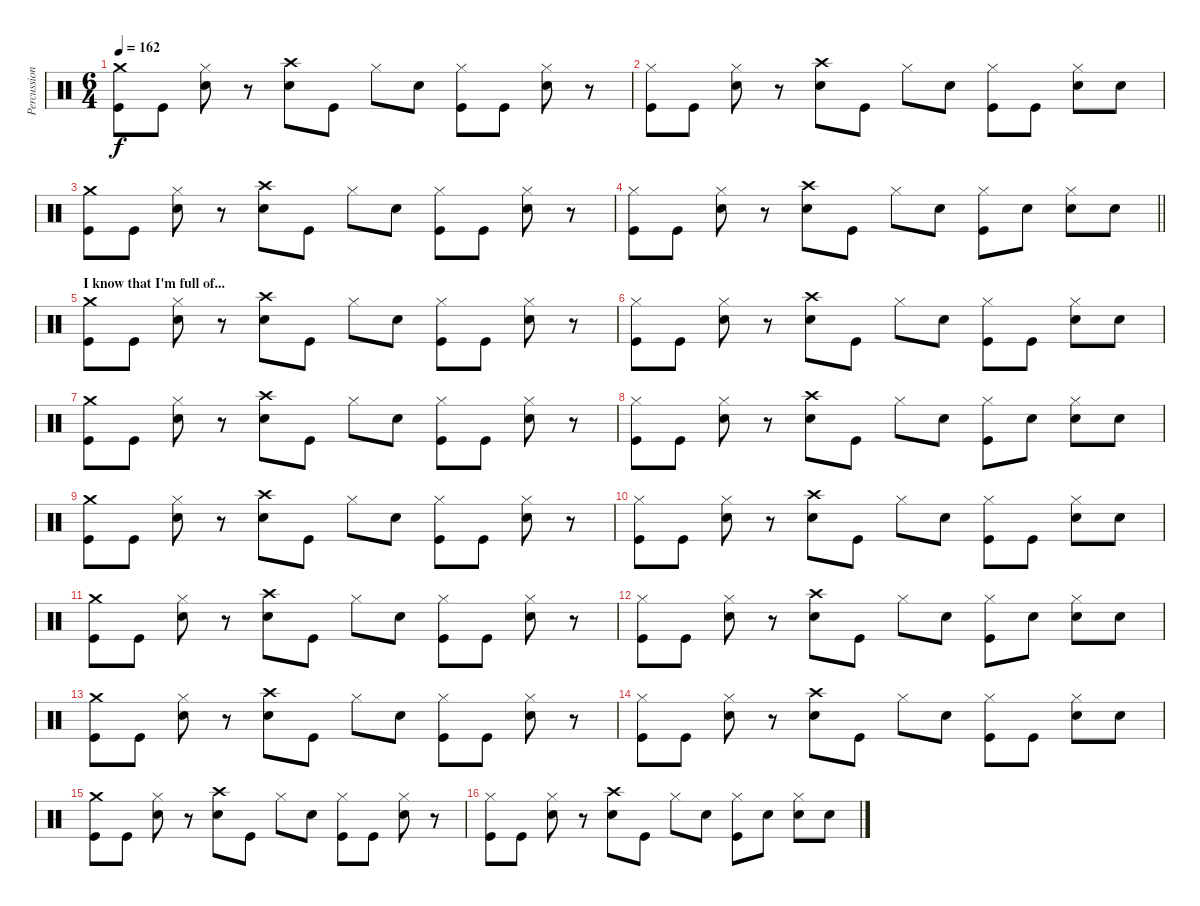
\track ("Percussion" "Percussion") {instrument percussion}
\staff {score}
\articulation defaults
\ts (6 4)
\tempo 162
\clef neutral
\ks c
("Crash medium (hit)" "Kick (hit)").8{dy f} "Kick (hit)".8 ("Hi-Hat (closed)" "Snare (hit) 2").8 r.8 ("Crash high (hit)" "Snare (hit) 2").8 "Kick (hit)".8 "Hi-Hat (closed)".8 "Snare (hit) 2".8 ("Hi-Hat (closed)" "Kick (hit)").8 "Kick (hit)".8 ("Hi-Hat (closed)" "Snare (hit) 2").8 r.8 |
("Hi-Hat (closed)" "Kick (hit)").8 "Kick (hit)".8 ("Hi-Hat (closed)" "Snare (hit) 2").8 r.8 ("Crash high (hit)" "Snare (hit) 2").8 "Kick (hit)".8 "Hi-Hat (closed)".8 "Snare (hit) 2".8 ("Hi-Hat (closed)" "Kick (hit)").8 "Kick (hit)".8 ("Hi-Hat (closed)" "Snare (hit) 2").8 "Snare (hit) 2".8 |
("Crash medium (hit)" "Kick (hit)").8 "Kick (hit)".8 ("Hi-Hat (closed)" "Snare (hit) 2").8 r.8 ("Crash high (hit)" "Snare (hit) 2").8 "Kick (hit)".8 "Hi-Hat (closed)".8 "Snare (hit) 2".8 ("Hi-Hat (closed)" "Kick (hit)").8 "Kick (hit)".8 ("Hi-Hat (closed)" "Snare (hit) 2").8 r.8 |
\barLineRight lightlight
("Hi-Hat (closed)" "Kick (hit)").8 "Kick (hit)".8 ("Hi-Hat (closed)" "Snare (hit) 2").8 r.8 ("Crash high (hit)" "Snare (hit) 2").8 "Kick (hit)".8 "Hi-Hat (closed)".8 "Snare (hit) 2".8 ("Hi-Hat (closed)" "Kick (hit)").8 "Snare (hit) 2".8 ("Hi-Hat (closed)" "Snare (hit) 2").8 "Snare (hit) 2".8 |
\section ("" "I know that I'm full of...")
("Crash medium (hit)" "Kick (hit)").8 "Kick (hit)".8 ("Hi-Hat (closed)" "Snare (hit) 2").8 r.8 ("Crash high (hit)" "Snare (hit) 2").8 "Kick (hit)".8 "Hi-Hat (closed)".8 "Snare (hit) 2".8 ("Hi-Hat (closed)" "Kick (hit)").8 "Kick (hit)".8 ("Hi-Hat (closed)" "Snare (hit) 2").8 r.8 |
("Hi-Hat (closed)" "Kick (hit)").8 "Kick (hit)".8 ("Hi-Hat (closed)" "Snare (hit) 2").8 r.8 ("Crash high (hit)" "Snare (hit) 2").8 "Kick (hit)".8 "Hi-Hat (closed)".8 "Snare (hit) 2".8 ("Hi-Hat (closed)" "Kick (hit)").8 "Kick (hit)".8 ("Hi-Hat (closed)" "Snare (hit) 2").8 "Snare (hit) 2".8 |
("Crash medium (hit)" "Kick (hit)").8 "Kick (hit)".8 ("Hi-Hat (closed)" "Snare (hit) 2").8 r.8 ("Crash high (hit)" "Snare (hit) 2").8 "Kick (hit)".8 "Hi-Hat (closed)".8 "Snare (hit) 2".8 ("Hi-Hat (closed)" "Kick (hit)").8 "Kick (hit)".8 ("Hi-Hat (closed)" "Snare (hit) 2").8 r.8 |
("Hi-Hat (closed)" "Kick (hit)").8 "Kick (hit)".8 ("Hi-Hat (closed)" "Snare (hit) 2").8 r.8 ("Crash high (hit)" "Snare (hit) 2").8 "Kick (hit)".8 "Hi-Hat (closed)".8 "Snare (hit) 2".8 ("Hi-Hat (closed)" "Kick (hit)").8 "Snare (hit) 2".8 ("Hi-Hat (closed)" "Snare (hit) 2").8 "Snare (hit) 2".8 |
("Crash medium (hit)" "Kick (hit)").8 "Kick (hit)".8 ("Hi-Hat (closed)" "Snare (hit) 2").8 r.8 ("Crash high (hit)" "Snare (hit) 2").8 "Kick (hit)".8 "Hi-Hat (closed)".8 "Snare (hit) 2".8 ("Hi-Hat (closed)" "Kick (hit)").8 "Kick (hit)".8 ("Hi-Hat (closed)" "Snare (hit) 2").8 r.8 |
("Hi-Hat (closed)" "Kick (hit)").8 "Kick (hit)".8 ("Hi-Hat (closed)" "Snare (hit) 2").8 r.8 ("Crash high (hit)" "Snare (hit) 2").8 "Kick (hit)".8 "Hi-Hat (closed)".8 "Snare (hit) 2".8 ("Hi-Hat (closed)" "Kick (hit)").8 "Kick (hit)".8 ("Hi-Hat (closed)" "Snare (hit) 2").8 "Snare (hit) 2".8 |
("Crash medium (hit)" "Kick (hit)").8 "Kick (hit)".8 ("Hi-Hat (closed)" "Snare (hit) 2").8 r.8 ("Crash high (hit)" "Snare (hit) 2").8 "Kick (hit)".8 "Hi-Hat (closed)".8 "Snare (hit) 2".8 ("Hi-Hat (closed)" "Kick (hit)").8 "Kick (hit)".8 ("Hi-Hat (closed)" "Snare (hit) 2").8 r.8 |
("Hi-Hat (closed)" "Kick (hit)").8 "Kick (hit)".8 ("Hi-Hat (closed)" "Snare (hit) 2").8 r.8 ("Crash high (hit)" "Snare (hit) 2").8 "Kick (hit)".8 "Hi-Hat (closed)".8 "Snare (hit) 2".8 ("Hi-Hat (closed)" "Kick (hit)").8 "Snare (hit) 2".8 ("Hi-Hat (closed)" "Snare (hit) 2").8 "Snare (hit) 2".8 |
("Crash medium (hit)" "Kick (hit)").8 "Kick (hit)".8 ("Hi-Hat (closed)" "Snare (hit) 2").8 r.8 ("Crash high (hit)" "Snare (hit) 2").8 "Kick (hit)".8 "Hi-Hat (closed)".8 "Snare (hit) 2".8 ("Hi-Hat (closed)" "Kick (hit)").8 "Kick (hit)".8 ("Hi-Hat (closed)" "Snare (hit) 2").8 r.8 |
("Hi-Hat (closed)" "Kick (hit)").8 "Kick (hit)".8 ("Hi-Hat (closed)" "Snare (hit) 2").8 r.8 ("Crash high (hit)" "Snare (hit) 2").8 "Kick (hit)".8 "Hi-Hat (closed)".8 "Snare (hit) 2".8 ("Hi-Hat (closed)" "Kick (hit)").8 "Kick (hit)".8 ("Hi-Hat (closed)" "Snare (hit) 2").8 "Snare (hit) 2".8 |
("Crash medium (hit)" "Kick (hit)").8 "Kick (hit)".8 ("Hi-Hat (closed)" "Snare (hit) 2").8 r.8 ("Crash high (hit)" "Snare (hit) 2").8 "Kick (hit)".8 "Hi-Hat (closed)".8 "Snare (hit) 2".8 ("Hi-Hat (closed)" "Kick (hit)").8 "Kick (hit)".8 ("Hi-Hat (closed)" "Snare (hit) 2").8 r.8 |
("Hi-Hat (closed)" "Kick (hit)").8 "Kick (hit)".8 ("Hi-Hat (closed)" "Snare (hit) 2").8 r.8 ("Crash high (hit)" "Snare (hit) 2").8 "Kick (hit)".8 "Hi-Hat (closed)".8 "Snare (hit) 2".8 ("Hi-Hat (closed)" "Kick (hit)").8 "Snare (hit) 2".8 ("Hi-Hat (closed)" "Snare (hit) 2").8 "Snare (hit) 2".8
